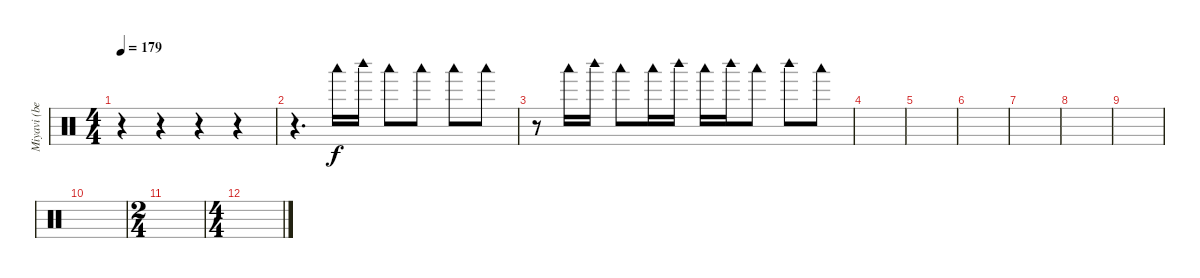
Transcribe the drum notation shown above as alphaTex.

\track ("Miyavi (beating guitar)" "Miyavi (be") {instrument percussion}
\staff {score}
\articulation defaults
\ts (4 4)
\tempo 179
\clef neutral
\ks c
r.4{dy f} r.4 r.4 r.4 |
r.4{d} "Woodblock low (hit)".16 "Woodblock high (hit)".16 "Woodblock low (hit)".8 "Woodblock low (hit)".8 "Woodblock low (hit)".8 "Woodblock low (hit)".8 |
r.8 "Woodblock low (hit)".16 "Woodblock high (hit)".16 "Woodblock low (hit)".8 "Woodblock low (hit)".16 "Woodblock high (hit)".16 "Woodblock low (hit)".16 "Woodblock high (hit)".16 "Woodblock low (hit)".8 "Woodblock high (hit)".8 "Woodblock low (hit)".8 |
|
|
|
|
|
|
|
\ts (2 4)
|
\ts (4 4)
